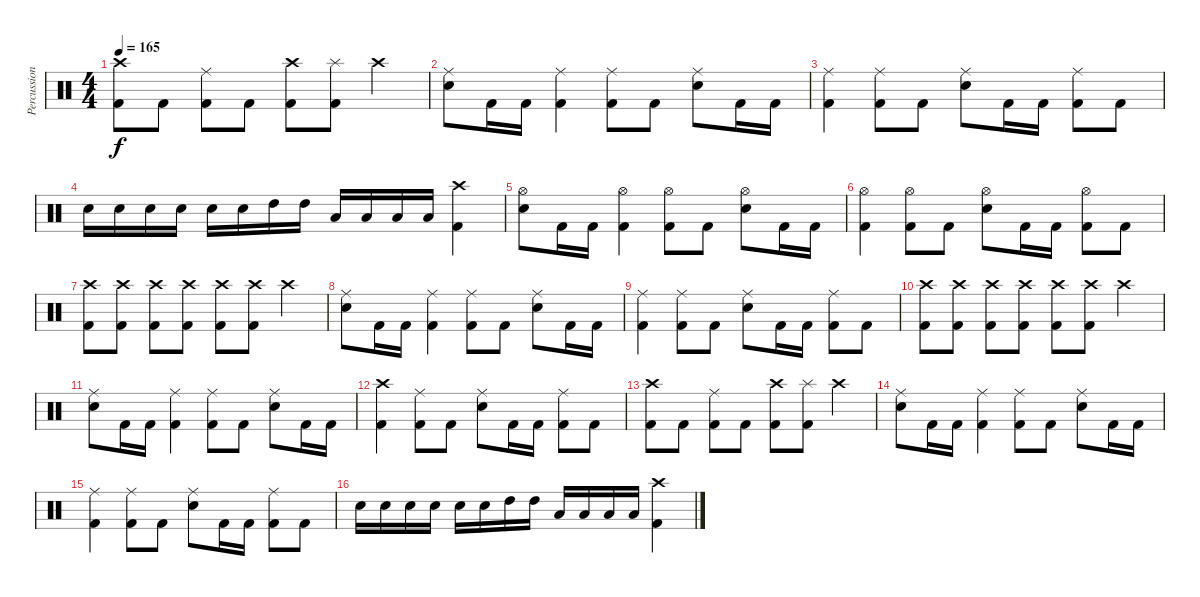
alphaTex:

\track ("Percussion" "Percussion") {instrument percussion}
\staff {score}
\articulation defaults
\ts (4 4)
\tempo 165
\clef neutral
\ks c
("Crash high (hit)" "Kick (hit) 2").8{dy f} "Kick (hit) 2".8 ("Ride (middle)" "Kick (hit) 2").8 "Kick (hit) 2".8 ("Crash high (hit)" "Kick (hit) 2").8 ("Splash (hit)" "Kick (hit) 2").8 "Crash high (hit)".4 |
("Ride (middle)" "Electric Snare (hit)").8 "Kick (hit) 2".16 "Kick (hit) 2".16 ("Ride (middle)" "Kick (hit) 2").4 ("Ride (middle)" "Kick (hit) 2").8 "Kick (hit) 2".8 ("Ride (middle)" "Electric Snare (hit)").8 "Kick (hit) 2".16 "Kick (hit) 2".16 |
("Ride (middle)" "Kick (hit) 2").4 ("Ride (middle)" "Kick (hit) 2").8 "Kick (hit) 2".8 ("Ride (middle)" "Electric Snare (hit)").8 "Kick (hit) 2".16 "Kick (hit) 2".16 ("Ride (middle)" "Kick (hit) 2").8 "Kick (hit) 2".8 |
"Electric Snare (hit)".16 "Electric Snare (hit)".16 "Electric Snare (hit)".16 "Electric Snare (hit)".16 "Electric Snare (hit)".16 "Electric Snare (hit)".16 "High Tom (hit)".16 "High Tom (hit)".16 "Low Tom (hit)".16 "Low Tom (hit)".16 "Low Floor Tom (hit)".16 "Low Floor Tom (hit)".16 ("Crash high (hit)" "Kick (hit) 2").4 |
("Hi-Hat (open)" "Electric Snare (hit)").8 "Kick (hit) 2".16 "Kick (hit) 2".16 ("Hi-Hat (open)" "Kick (hit) 2").4 ("Hi-Hat (open)" "Kick (hit) 2").8 "Kick (hit) 2".8 ("Hi-Hat (open)" "Electric Snare (hit)").8 "Kick (hit) 2".16 "Kick (hit) 2".16 |
("Hi-Hat (open)" "Kick (hit) 2").4 ("Hi-Hat (open)" "Kick (hit) 2").8 "Kick (hit) 2".8 ("Hi-Hat (open)" "Electric Snare (hit)").8 "Kick (hit) 2".16 "Kick (hit) 2".16 ("Hi-Hat (open)" "Kick (hit) 2").8 "Kick (hit) 2".8 |
("Crash high (hit)" "Kick (hit) 2").8 ("Crash high (hit)" "Kick (hit) 2").8 ("Crash high (hit)" "Kick (hit) 2").8 ("Crash high (hit)" "Kick (hit) 2").8 ("Crash high (hit)" "Kick (hit) 2").8 ("Crash high (hit)" "Kick (hit) 2").8 "Crash high (hit)".4 |
("Ride (middle)" "Electric Snare (hit)").8 "Kick (hit) 2".16 "Kick (hit) 2".16 ("Ride (middle)" "Kick (hit) 2").4 ("Ride (middle)" "Kick (hit) 2").8 "Kick (hit) 2".8 ("Ride (middle)" "Electric Snare (hit)").8 "Kick (hit) 2".16 "Kick (hit) 2".16 |
("Ride (middle)" "Kick (hit) 2").4 ("Ride (middle)" "Kick (hit) 2").8 "Kick (hit) 2".8 ("Ride (middle)" "Electric Snare (hit)").8 "Kick (hit) 2".16 "Kick (hit) 2".16 ("Ride (middle)" "Kick (hit) 2").8 "Kick (hit) 2".8 |
("Crash high (hit)" "Kick (hit) 2").8 ("Crash high (hit)" "Kick (hit) 2").8 ("Crash high (hit)" "Kick (hit) 2").8 ("Crash high (hit)" "Kick (hit) 2").8 ("Crash high (hit)" "Kick (hit) 2").8 ("Crash high (hit)" "Kick (hit) 2").8 "Crash high (hit)".4 |
("Ride (middle)" "Electric Snare (hit)").8 "Kick (hit) 2".16 "Kick (hit) 2".16 ("Ride (middle)" "Kick (hit) 2").4 ("Ride (middle)" "Kick (hit) 2").8 "Kick (hit) 2".8 ("Ride (middle)" "Electric Snare (hit)").8 "Kick (hit) 2".16 "Kick (hit) 2".16 |
("Crash high (hit)" "Kick (hit) 2").4 ("Ride (middle)" "Kick (hit) 2").8 "Kick (hit) 2".8 ("Ride (middle)" "Electric Snare (hit)").8 "Kick (hit) 2".16 "Kick (hit) 2".16 ("Ride (middle)" "Kick (hit) 2").8 "Kick (hit) 2".8 |
("Crash high (hit)" "Kick (hit) 2").8 "Kick (hit) 2".8 ("Ride (middle)" "Kick (hit) 2").8 "Kick (hit) 2".8 ("Crash high (hit)" "Kick (hit) 2").8 ("Splash (hit)" "Kick (hit) 2").8 "Crash high (hit)".4 |
("Ride (middle)" "Electric Snare (hit)").8 "Kick (hit) 2".16 "Kick (hit) 2".16 ("Ride (middle)" "Kick (hit) 2").4 ("Ride (middle)" "Kick (hit) 2").8 "Kick (hit) 2".8 ("Ride (middle)" "Electric Snare (hit)").8 "Kick (hit) 2".16 "Kick (hit) 2".16 |
("Ride (middle)" "Kick (hit) 2").4 ("Ride (middle)" "Kick (hit) 2").8 "Kick (hit) 2".8 ("Ride (middle)" "Electric Snare (hit)").8 "Kick (hit) 2".16 "Kick (hit) 2".16 ("Ride (middle)" "Kick (hit) 2").8 "Kick (hit) 2".8 |
"Electric Snare (hit)".16 "Electric Snare (hit)".16 "Electric Snare (hit)".16 "Electric Snare (hit)".16 "Electric Snare (hit)".16 "Electric Snare (hit)".16 "High Tom (hit)".16 "High Tom (hit)".16 "Low Tom (hit)".16 "Low Tom (hit)".16 "Low Floor Tom (hit)".16 "Low Floor Tom (hit)".16 ("Crash high (hit)" "Kick (hit) 2").4
